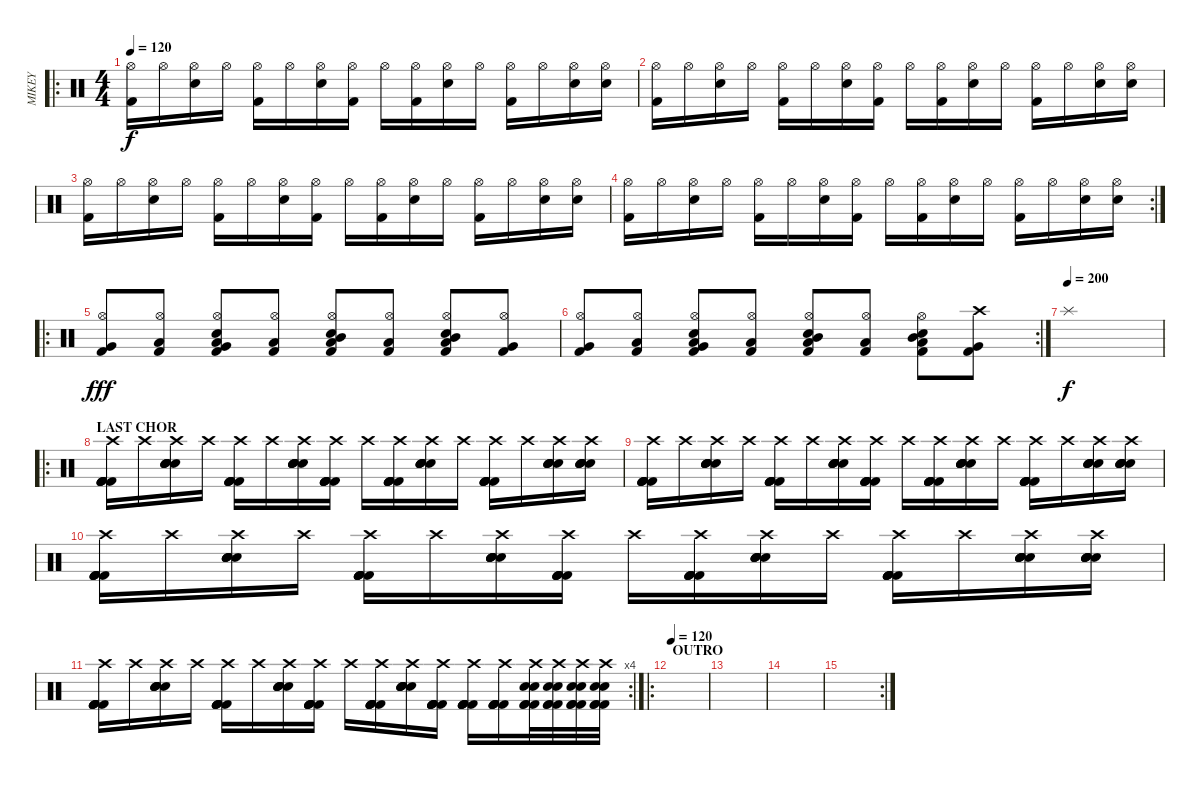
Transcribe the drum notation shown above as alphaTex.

\track ("MIKEY" "MIKEY") {instrument percussion}
\staff {score}
\articulation defaults
\ro
\ts (4 4)
\tempo 120
\clef neutral
\ks c
("Kick (hit) 2" "Hi-Hat (open)").16{dy f} "Hi-Hat (open)".16 ("Electric Snare (hit)" "Hi-Hat (open)").16 "Hi-Hat (open)".16 ("Kick (hit) 2" "Hi-Hat (open)").16 "Hi-Hat (open)".16 ("Electric Snare (hit)" "Hi-Hat (open)").16 ("Kick (hit) 2" "Hi-Hat (open)").16 "Hi-Hat (open)".16 ("Kick (hit) 2" "Hi-Hat (open)").16 ("Electric Snare (hit)" "Hi-Hat (open)").16 "Hi-Hat (open)".16 ("Kick (hit) 2" "Hi-Hat (open)").16 "Hi-Hat (open)".16 ("Electric Snare (hit)" "Hi-Hat (open)").16 ("Electric Snare (hit)" "Hi-Hat (open)").16 |
("Kick (hit) 2" "Hi-Hat (open)").16 "Hi-Hat (open)".16 ("Electric Snare (hit)" "Hi-Hat (open)").16 "Hi-Hat (open)".16 ("Kick (hit) 2" "Hi-Hat (open)").16 "Hi-Hat (open)".16 ("Electric Snare (hit)" "Hi-Hat (open)").16 ("Kick (hit) 2" "Hi-Hat (open)").16 "Hi-Hat (open)".16 ("Kick (hit) 2" "Hi-Hat (open)").16 ("Electric Snare (hit)" "Hi-Hat (open)").16 "Hi-Hat (open)".16 ("Kick (hit) 2" "Hi-Hat (open)").16 "Hi-Hat (open)".16 ("Electric Snare (hit)" "Hi-Hat (open)").16 ("Electric Snare (hit)" "Hi-Hat (open)").16 |
("Kick (hit) 2" "Hi-Hat (open)").16 "Hi-Hat (open)".16 ("Electric Snare (hit)" "Hi-Hat (open)").16 "Hi-Hat (open)".16 ("Kick (hit) 2" "Hi-Hat (open)").16 "Hi-Hat (open)".16 ("Electric Snare (hit)" "Hi-Hat (open)").16 ("Kick (hit) 2" "Hi-Hat (open)").16 "Hi-Hat (open)".16 ("Kick (hit) 2" "Hi-Hat (open)").16 ("Electric Snare (hit)" "Hi-Hat (open)").16 "Hi-Hat (open)".16 ("Kick (hit) 2" "Hi-Hat (open)").16 "Hi-Hat (open)".16 ("Electric Snare (hit)" "Hi-Hat (open)").16 ("Electric Snare (hit)" "Hi-Hat (open)").16 |
\rc 2
("Kick (hit) 2" "Hi-Hat (open)").16 "Hi-Hat (open)".16 ("Electric Snare (hit)" "Hi-Hat (open)").16 "Hi-Hat (open)".16 ("Kick (hit) 2" "Hi-Hat (open)").16 "Hi-Hat (open)".16 ("Electric Snare (hit)" "Hi-Hat (open)").16 ("Kick (hit) 2" "Hi-Hat (open)").16 "Hi-Hat (open)".16 ("Kick (hit) 2" "Hi-Hat (open)").16 ("Electric Snare (hit)" "Hi-Hat (open)").16 "Hi-Hat (open)".16 ("Kick (hit) 2" "Hi-Hat (open)").16 "Hi-Hat (open)".16 ("Electric Snare (hit)" "Hi-Hat (open)").16 ("Electric Snare (hit)" "Hi-Hat (open)").16 |
\ro
("Kick (hit) 2" "Very Low Tom (hit)" "Hi-Hat (open)").8{dy fff} ("Kick (hit) 2" "Low Tom (hit)" "Hi-Hat (open)").8 ("Low Floor Tom (hit)" "Electric Snare (hit)" "Kick (hit) 2" "Very Low Tom (hit)" "Hi-Hat (open)").8 ("Kick (hit) 2" "Low Tom (hit)" "Hi-Hat (open)").8 ("Low Floor Tom (hit)" "Electric Snare (hit)" "Kick (hit) 2" "Mid Tom (hit)" "Hi-Hat (open)").8 ("Kick (hit) 2" "Low Tom (hit)" "Hi-Hat (open)").8 ("Low Floor Tom (hit)" "Electric Snare (hit)" "Kick (hit) 2" "Mid Tom (hit)" "Hi-Hat (open)").8 ("Kick (hit) 2" "Very Low Tom (hit)" "Hi-Hat (open)").8 |
\rc 2
("Kick (hit) 2" "Very Low Tom (hit)" "Hi-Hat (open)").8 ("Kick (hit) 2" "Low Tom (hit)" "Hi-Hat (open)").8 ("Low Floor Tom (hit)" "Electric Snare (hit)" "Kick (hit) 2" "Very Low Tom (hit)" "Hi-Hat (open)").8 ("Kick (hit) 2" "Low Tom (hit)" "Hi-Hat (open)").8 ("Low Floor Tom (hit)" "Electric Snare (hit)" "Kick (hit) 2" "Mid Tom (hit)" "Hi-Hat (open)").8 ("Kick (hit) 2" "Low Tom (hit)" "Hi-Hat (open)").8 ("Low Floor Tom (hit)" "Electric Snare (hit)" "Kick (hit) 2" "Mid Tom (hit)" "Hi-Hat (open)").8 ("Kick (hit) 2" "Very Low Tom (hit)" "Crash high (hit)").8 |
\tempo (200)
"Splash (hit)".1{dy f} |
\ro
\section ("" "LAST CHOR")
("Kick (hit) 2" "Kick (hit) 2" "Kick (hit) 2" "Kick (hit) 2" "Kick (hit) 2" "Crash high (hit)").16 "Crash high (hit)".16 ("Electric Snare (hit)" "Electric Snare (hit)" "Electric Snare (hit)" "Electric Snare (hit)" "Electric Snare (hit)" "Crash high (hit)").16 "Crash high (hit)".16 ("Kick (hit) 2" "Kick (hit) 2" "Kick (hit) 2" "Kick (hit) 2" "Kick (hit) 2" "Crash high (hit)").16 "Crash high (hit)".16 ("Electric Snare (hit)" "Electric Snare (hit)" "Electric Snare (hit)" "Electric Snare (hit)" "Electric Snare (hit)" "Crash high (hit)").16 ("Kick (hit) 2" "Kick (hit) 2" "Kick (hit) 2" "Kick (hit) 2" "Kick (hit) 2" "Crash high (hit)").16 "Crash high (hit)".16 ("Kick (hit) 2" "Kick (hit) 2" "Kick (hit) 2" "Kick (hit) 2" "Kick (hit) 2" "Crash high (hit)").16 ("Electric Snare (hit)" "Electric Snare (hit)" "Electric Snare (hit)" "Electric Snare (hit)" "Electric Snare (hit)" "Crash high (hit)").16 "Crash high (hit)".16 ("Kick (hit) 2" "Kick (hit) 2" "Kick (hit) 2" "Kick (hit) 2" "Kick (hit) 2" "Crash high (hit)").16 "Crash high (hit)".16 ("Electric Snare (hit)" "Electric Snare (hit)" "Electric Snare (hit)" "Electric Snare (hit)" "Electric Snare (hit)" "Crash high (hit)").16 ("Electric Snare (hit)" "Electric Snare (hit)" "Electric Snare (hit)" "Electric Snare (hit)" "Electric Snare (hit)" "Crash high (hit)").16 |
("Kick (hit) 2" "Kick (hit) 2" "Kick (hit) 2" "Kick (hit) 2" "Kick (hit) 2" "Crash high (hit)").16 "Crash high (hit)".16 ("Electric Snare (hit)" "Electric Snare (hit)" "Electric Snare (hit)" "Electric Snare (hit)" "Electric Snare (hit)" "Crash high (hit)").16 "Crash high (hit)".16 ("Kick (hit) 2" "Kick (hit) 2" "Kick (hit) 2" "Kick (hit) 2" "Kick (hit) 2" "Crash high (hit)").16 "Crash high (hit)".16 ("Electric Snare (hit)" "Electric Snare (hit)" "Electric Snare (hit)" "Electric Snare (hit)" "Electric Snare (hit)" "Crash high (hit)").16 ("Kick (hit) 2" "Kick (hit) 2" "Kick (hit) 2" "Kick (hit) 2" "Kick (hit) 2" "Crash high (hit)").16 "Crash high (hit)".16 ("Kick (hit) 2" "Kick (hit) 2" "Kick (hit) 2" "Kick (hit) 2" "Kick (hit) 2" "Crash high (hit)").16 ("Electric Snare (hit)" "Electric Snare (hit)" "Electric Snare (hit)" "Electric Snare (hit)" "Electric Snare (hit)" "Crash high (hit)").16 "Crash high (hit)".16 ("Kick (hit) 2" "Kick (hit) 2" "Kick (hit) 2" "Kick (hit) 2" "Kick (hit) 2" "Crash high (hit)").16 "Crash high (hit)".16 ("Electric Snare (hit)" "Electric Snare (hit)" "Electric Snare (hit)" "Electric Snare (hit)" "Electric Snare (hit)" "Crash high (hit)").16 ("Electric Snare (hit)" "Electric Snare (hit)" "Electric Snare (hit)" "Electric Snare (hit)" "Electric Snare (hit)" "Crash high (hit)").16 |
("Kick (hit) 2" "Kick (hit) 2" "Kick (hit) 2" "Kick (hit) 2" "Kick (hit) 2" "Crash high (hit)").16 "Crash high (hit)".16 ("Electric Snare (hit)" "Electric Snare (hit)" "Electric Snare (hit)" "Electric Snare (hit)" "Electric Snare (hit)" "Crash high (hit)").16 "Crash high (hit)".16 ("Kick (hit) 2" "Kick (hit) 2" "Kick (hit) 2" "Kick (hit) 2" "Kick (hit) 2" "Crash high (hit)").16 "Crash high (hit)".16 ("Electric Snare (hit)" "Electric Snare (hit)" "Electric Snare (hit)" "Electric Snare (hit)" "Electric Snare (hit)" "Crash high (hit)").16 ("Kick (hit) 2" "Kick (hit) 2" "Kick (hit) 2" "Kick (hit) 2" "Kick (hit) 2" "Crash high (hit)").16 "Crash high (hit)".16 ("Kick (hit) 2" "Kick (hit) 2" "Kick (hit) 2" "Kick (hit) 2" "Kick (hit) 2" "Crash high (hit)").16 ("Electric Snare (hit)" "Electric Snare (hit)" "Electric Snare (hit)" "Electric Snare (hit)" "Electric Snare (hit)" "Crash high (hit)").16 "Crash high (hit)".16 ("Kick (hit) 2" "Kick (hit) 2" "Kick (hit) 2" "Kick (hit) 2" "Kick (hit) 2" "Crash high (hit)").16 "Crash high (hit)".16 ("Electric Snare (hit)" "Electric Snare (hit)" "Electric Snare (hit)" "Electric Snare (hit)" "Electric Snare (hit)" "Crash high (hit)").16 ("Electric Snare (hit)" "Electric Snare (hit)" "Electric Snare (hit)" "Electric Snare (hit)" "Electric Snare (hit)" "Crash high (hit)").16 |
\rc 4
("Kick (hit) 2" "Kick (hit) 2" "Kick (hit) 2" "Kick (hit) 2" "Kick (hit) 2" "Crash high (hit)").16 "Crash high (hit)".16 ("Electric Snare (hit)" "Electric Snare (hit)" "Electric Snare (hit)" "Electric Snare (hit)" "Electric Snare (hit)" "Crash high (hit)").16 "Crash high (hit)".16 ("Kick (hit) 2" "Kick (hit) 2" "Kick (hit) 2" "Kick (hit) 2" "Kick (hit) 2" "Crash high (hit)").16 "Crash high (hit)".16 ("Electric Snare (hit)" "Electric Snare (hit)" "Electric Snare (hit)" "Electric Snare (hit)" "Electric Snare (hit)" "Crash high (hit)").16 ("Kick (hit) 2" "Kick (hit) 2" "Kick (hit) 2" "Kick (hit) 2" "Kick (hit) 2" "Crash high (hit)").16 "Crash high (hit)".16 ("Kick (hit) 2" "Kick (hit) 2" "Kick (hit) 2" "Kick (hit) 2" "Kick (hit) 2" "Crash high (hit)").16 ("Electric Snare (hit)" "Electric Snare (hit)" "Electric Snare (hit)" "Electric Snare (hit)" "Electric Snare (hit)" "Crash high (hit)").16 ("Kick (hit) 2" "Kick (hit) 2" "Kick (hit) 2" "Kick (hit) 2" "Kick (hit) 2" "Crash high (hit)").16 ("Kick (hit) 2" "Kick (hit) 2" "Kick (hit) 2" "Kick (hit) 2" "Kick (hit) 2" "Crash high (hit)").16 ("Kick (hit) 2" "Kick (hit) 2" "Kick (hit) 2" "Kick (hit) 2" "Kick (hit) 2" "Crash high (hit)").16 ("Kick (hit) 2" "Electric Snare (hit)" "Kick (hit) 2" "Kick (hit) 2" "Electric Snare (hit)" "Crash high (hit)").32 ("Kick (hit) 2" "Electric Snare (hit)" "Kick (hit) 2" "Kick (hit) 2" "Electric Snare (hit)" "Crash high (hit)").32 ("Kick (hit) 2" "Electric Snare (hit)" "Kick (hit) 2" "Kick (hit) 2" "Electric Snare (hit)" "Crash high (hit)").32 ("Kick (hit) 2" "Electric Snare (hit)" "Kick (hit) 2" "Kick (hit) 2" "Electric Snare (hit)" "Crash high (hit)").32 |
\ro
\section ("" "OUTRO")
\tempo 120
|
|
|
\rc 2
